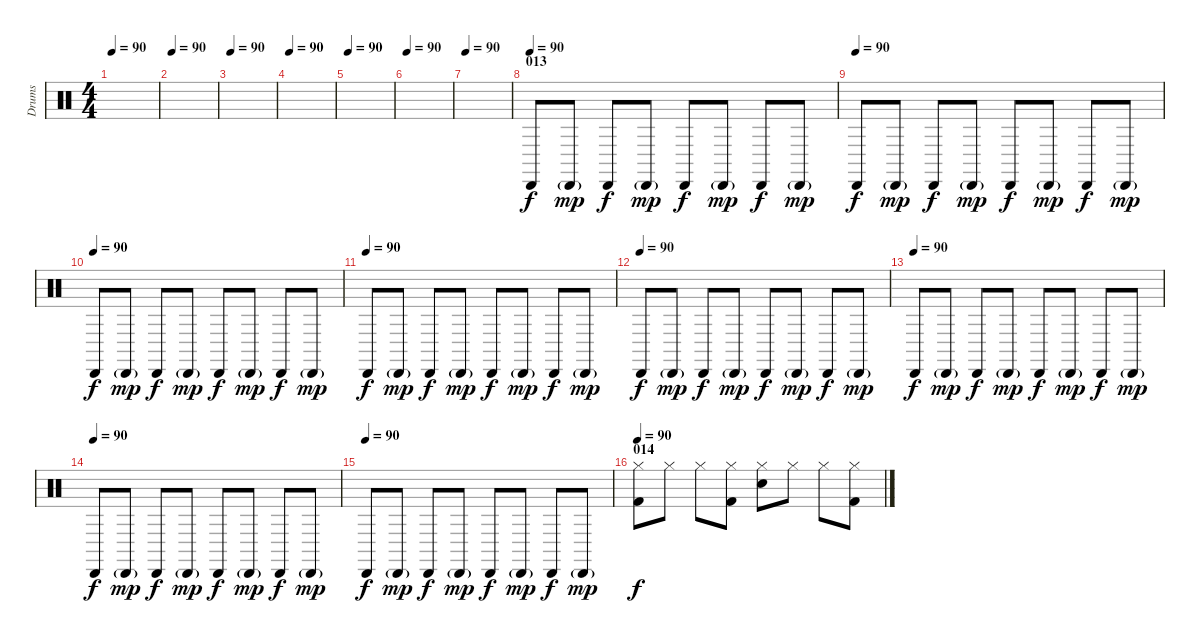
\track ("Drums" "Drums") {instrument percussion}
\staff {score}
\articulation defaults
\ts (4 4)
\tempo 90
\clef neutral
\ks c
|
\tempo 90
|
\tempo 90
|
\tempo 90
|
\tempo 90
|
\tempo 90
|
\tempo 90
|
\section ("" "013")
\tempo (90)
"Cabasa (hit)".8 "Cabasa (hit)"{g}.8{dy mp} "Cabasa (hit)".8{dy f} "Cabasa (hit)"{g}.8{dy mp} "Cabasa (hit)".8{dy f} "Cabasa (hit)"{g}.8{dy mp} "Cabasa (hit)".8{dy f} "Cabasa (hit)"{g}.8{dy mp} |
\tempo (90)
"Cabasa (hit)".8{dy f} "Cabasa (hit)"{g}.8{dy mp} "Cabasa (hit)".8{dy f} "Cabasa (hit)"{g}.8{dy mp} "Cabasa (hit)".8{dy f} "Cabasa (hit)"{g}.8{dy mp} "Cabasa (hit)".8{dy f} "Cabasa (hit)"{g}.8{dy mp} |
\tempo (90)
"Cabasa (hit)".8{dy f} "Cabasa (hit)"{g}.8{dy mp} "Cabasa (hit)".8{dy f} "Cabasa (hit)"{g}.8{dy mp} "Cabasa (hit)".8{dy f} "Cabasa (hit)"{g}.8{dy mp} "Cabasa (hit)".8{dy f} "Cabasa (hit)"{g}.8{dy mp} |
\tempo (90)
"Cabasa (hit)".8{dy f} "Cabasa (hit)"{g}.8{dy mp} "Cabasa (hit)".8{dy f} "Cabasa (hit)"{g}.8{dy mp} "Cabasa (hit)".8{dy f} "Cabasa (hit)"{g}.8{dy mp} "Cabasa (hit)".8{dy f} "Cabasa (hit)"{g}.8{dy mp} |
\tempo (90)
"Cabasa (hit)".8{dy f} "Cabasa (hit)"{g}.8{dy mp} "Cabasa (hit)".8{dy f} "Cabasa (hit)"{g}.8{dy mp} "Cabasa (hit)".8{dy f} "Cabasa (hit)"{g}.8{dy mp} "Cabasa (hit)".8{dy f} "Cabasa (hit)"{g}.8{dy mp} |
\tempo (90)
"Cabasa (hit)".8{dy f} "Cabasa (hit)"{g}.8{dy mp} "Cabasa (hit)".8{dy f} "Cabasa (hit)"{g}.8{dy mp} "Cabasa (hit)".8{dy f} "Cabasa (hit)"{g}.8{dy mp} "Cabasa (hit)".8{dy f} "Cabasa (hit)"{g}.8{dy mp} |
\tempo (90)
"Cabasa (hit)".8{dy f} "Cabasa (hit)"{g}.8{dy mp} "Cabasa (hit)".8{dy f} "Cabasa (hit)"{g}.8{dy mp} "Cabasa (hit)".8{dy f} "Cabasa (hit)"{g}.8{dy mp} "Cabasa (hit)".8{dy f} "Cabasa (hit)"{g}.8{dy mp} |
\tempo (90)
"Cabasa (hit)".8{dy f} "Cabasa (hit)"{g}.8{dy mp} "Cabasa (hit)".8{dy f} "Cabasa (hit)"{g}.8{dy mp} "Cabasa (hit)".8{dy f} "Cabasa (hit)"{g}.8{dy mp} "Cabasa (hit)".8{dy f} "Cabasa (hit)"{g}.8{dy mp} |
\section ("" "014")
\tempo 90
("Hi-Hat (closed)" "Kick (hit) 2").8{dy f} "Hi-Hat (closed)".8 "Hi-Hat (closed)".8 ("Hi-Hat (closed)" "Kick (hit) 2").8 ("Hi-Hat (closed)" "Electric Snare (hit)").8 "Hi-Hat (closed)".8 "Hi-Hat (closed)".8 ("Hi-Hat (closed)" "Kick (hit) 2").8
